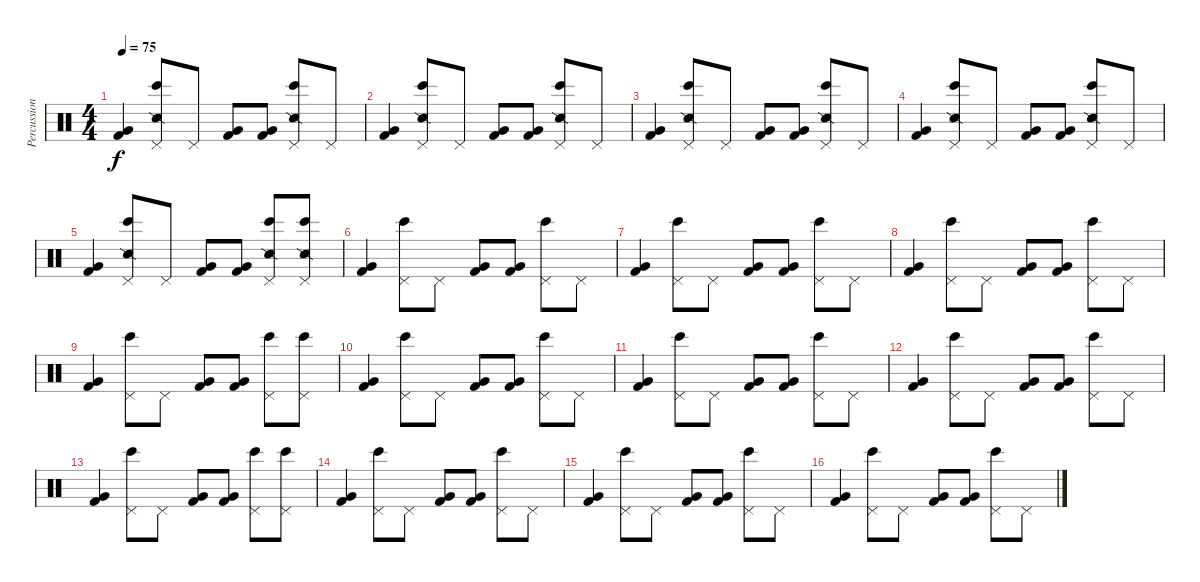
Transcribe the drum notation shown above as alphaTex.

\track ("Percussion" "Percussion") {instrument percussion}
\staff {score}
\articulation defaults
\ts (4 4)
\tempo 75
\clef neutral
\ks c
("Very Low Tom (hit)" "Kick (hit) 2").4{dy f} ("Pedal Hi-Hat (hit)" "Bongo High (hit)" "Snare (side stick) 2").8 "Pedal Hi-Hat (hit)".8 ("Very Low Tom (hit)" "Kick (hit) 2").8 ("Very Low Tom (hit)" "Kick (hit) 2").8 ("Pedal Hi-Hat (hit)" "Bongo High (hit)" "Snare (side stick) 2").8 "Pedal Hi-Hat (hit)".8 |
("Very Low Tom (hit)" "Kick (hit) 2").4 ("Pedal Hi-Hat (hit)" "Bongo High (hit)" "Snare (side stick) 2").8 "Pedal Hi-Hat (hit)".8 ("Very Low Tom (hit)" "Kick (hit) 2").8 ("Very Low Tom (hit)" "Kick (hit) 2").8 ("Pedal Hi-Hat (hit)" "Bongo High (hit)" "Snare (side stick) 2").8 "Pedal Hi-Hat (hit)".8 |
("Very Low Tom (hit)" "Kick (hit) 2").4 ("Pedal Hi-Hat (hit)" "Bongo High (hit)" "Snare (side stick) 2").8 "Pedal Hi-Hat (hit)".8 ("Very Low Tom (hit)" "Kick (hit) 2").8 ("Very Low Tom (hit)" "Kick (hit) 2").8 ("Pedal Hi-Hat (hit)" "Bongo High (hit)" "Snare (side stick) 2").8 "Pedal Hi-Hat (hit)".8 |
("Very Low Tom (hit)" "Kick (hit) 2").4 ("Pedal Hi-Hat (hit)" "Bongo High (hit)" "Snare (side stick) 2").8 "Pedal Hi-Hat (hit)".8 ("Very Low Tom (hit)" "Kick (hit) 2").8 ("Very Low Tom (hit)" "Kick (hit) 2").8 ("Pedal Hi-Hat (hit)" "Bongo High (hit)" "Snare (side stick) 2").8 "Pedal Hi-Hat (hit)".8 |
("Very Low Tom (hit)" "Kick (hit) 2").4 ("Pedal Hi-Hat (hit)" "Bongo High (hit)" "Snare (side stick) 2").8 "Pedal Hi-Hat (hit)".8 ("Very Low Tom (hit)" "Kick (hit) 2").8 ("Very Low Tom (hit)" "Kick (hit) 2").8 ("Pedal Hi-Hat (hit)" "Bongo High (hit)" "Snare (side stick) 2").8 ("Pedal Hi-Hat (hit)" "Bongo High (hit)" "Snare (side stick) 2").8 |
("Very Low Tom (hit)" "Kick (hit) 2").4 ("Pedal Hi-Hat (hit)" "Bongo High (hit)").8 "Pedal Hi-Hat (hit)".8 ("Very Low Tom (hit)" "Kick (hit) 2").8 ("Very Low Tom (hit)" "Kick (hit) 2").8 ("Pedal Hi-Hat (hit)" "Bongo High (hit)").8 "Pedal Hi-Hat (hit)".8 |
("Very Low Tom (hit)" "Kick (hit) 2").4 ("Pedal Hi-Hat (hit)" "Bongo High (hit)").8 "Pedal Hi-Hat (hit)".8 ("Very Low Tom (hit)" "Kick (hit) 2").8 ("Very Low Tom (hit)" "Kick (hit) 2").8 ("Pedal Hi-Hat (hit)" "Bongo High (hit)").8 "Pedal Hi-Hat (hit)".8 |
("Very Low Tom (hit)" "Kick (hit) 2").4 ("Pedal Hi-Hat (hit)" "Bongo High (hit)").8 "Pedal Hi-Hat (hit)".8 ("Very Low Tom (hit)" "Kick (hit) 2").8 ("Very Low Tom (hit)" "Kick (hit) 2").8 ("Pedal Hi-Hat (hit)" "Bongo High (hit)").8 "Pedal Hi-Hat (hit)".8 |
("Very Low Tom (hit)" "Kick (hit) 2").4 ("Pedal Hi-Hat (hit)" "Bongo High (hit)").8 "Pedal Hi-Hat (hit)".8 ("Very Low Tom (hit)" "Kick (hit) 2").8 ("Very Low Tom (hit)" "Kick (hit) 2").8 ("Pedal Hi-Hat (hit)" "Bongo High (hit)").8 ("Pedal Hi-Hat (hit)" "Bongo High (hit)").8 |
("Very Low Tom (hit)" "Kick (hit) 2").4 ("Pedal Hi-Hat (hit)" "Bongo High (hit)").8 "Pedal Hi-Hat (hit)".8 ("Very Low Tom (hit)" "Kick (hit) 2").8 ("Very Low Tom (hit)" "Kick (hit) 2").8 ("Pedal Hi-Hat (hit)" "Bongo High (hit)").8 "Pedal Hi-Hat (hit)".8 |
("Very Low Tom (hit)" "Kick (hit) 2").4 ("Pedal Hi-Hat (hit)" "Bongo High (hit)").8 "Pedal Hi-Hat (hit)".8 ("Very Low Tom (hit)" "Kick (hit) 2").8 ("Very Low Tom (hit)" "Kick (hit) 2").8 ("Pedal Hi-Hat (hit)" "Bongo High (hit)").8 "Pedal Hi-Hat (hit)".8 |
("Very Low Tom (hit)" "Kick (hit) 2").4 ("Pedal Hi-Hat (hit)" "Bongo High (hit)").8 "Pedal Hi-Hat (hit)".8 ("Very Low Tom (hit)" "Kick (hit) 2").8 ("Very Low Tom (hit)" "Kick (hit) 2").8 ("Pedal Hi-Hat (hit)" "Bongo High (hit)").8 "Pedal Hi-Hat (hit)".8 |
("Very Low Tom (hit)" "Kick (hit) 2").4 ("Pedal Hi-Hat (hit)" "Bongo High (hit)").8 "Pedal Hi-Hat (hit)".8 ("Very Low Tom (hit)" "Kick (hit) 2").8 ("Very Low Tom (hit)" "Kick (hit) 2").8 ("Pedal Hi-Hat (hit)" "Bongo High (hit)").8 ("Pedal Hi-Hat (hit)" "Bongo High (hit)").8 |
("Very Low Tom (hit)" "Kick (hit) 2").4 ("Pedal Hi-Hat (hit)" "Bongo High (hit)").8 "Pedal Hi-Hat (hit)".8 ("Very Low Tom (hit)" "Kick (hit) 2").8 ("Very Low Tom (hit)" "Kick (hit) 2").8 ("Pedal Hi-Hat (hit)" "Bongo High (hit)").8 "Pedal Hi-Hat (hit)".8 |
("Very Low Tom (hit)" "Kick (hit) 2").4 ("Pedal Hi-Hat (hit)" "Bongo High (hit)").8 "Pedal Hi-Hat (hit)".8 ("Very Low Tom (hit)" "Kick (hit) 2").8 ("Very Low Tom (hit)" "Kick (hit) 2").8 ("Pedal Hi-Hat (hit)" "Bongo High (hit)").8 "Pedal Hi-Hat (hit)".8 |
("Very Low Tom (hit)" "Kick (hit) 2").4 ("Pedal Hi-Hat (hit)" "Bongo High (hit)").8 "Pedal Hi-Hat (hit)".8 ("Very Low Tom (hit)" "Kick (hit) 2").8 ("Very Low Tom (hit)" "Kick (hit) 2").8 ("Pedal Hi-Hat (hit)" "Bongo High (hit)").8 "Pedal Hi-Hat (hit)".8
